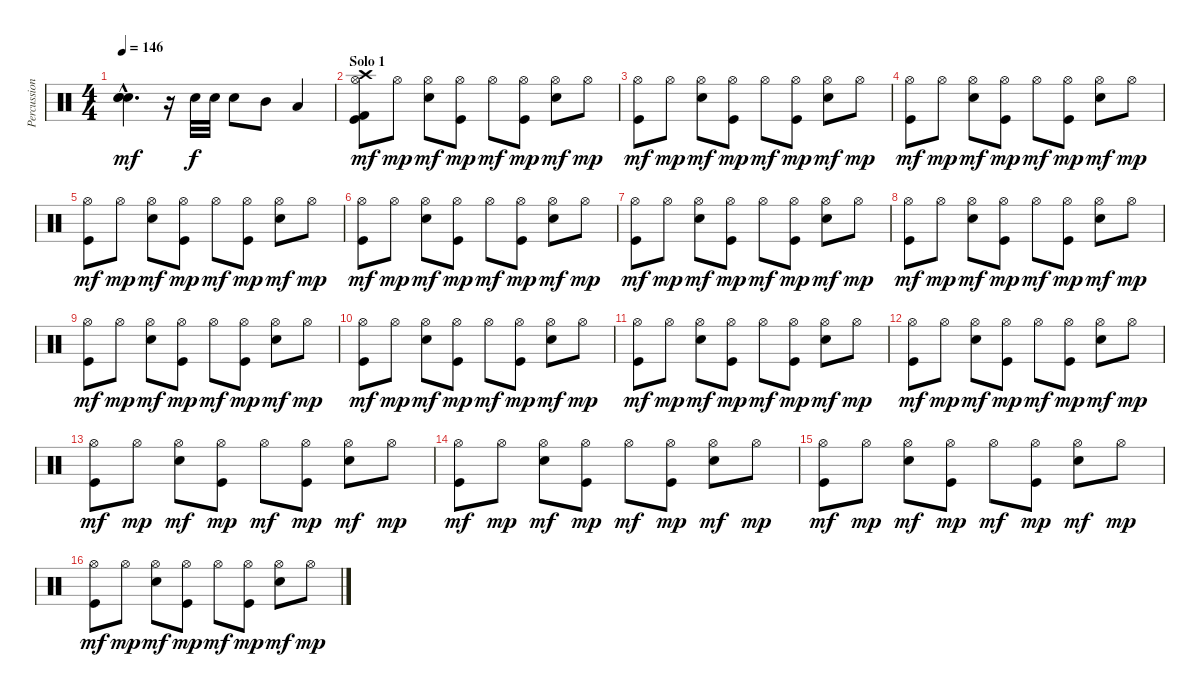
\track ("Percussion" "Percussion") {instrument percussion}
\staff {score}
\articulation defaults
\ts (4 4)
\tempo 146
\clef neutral
\ks c
("Snare (hit)"{hac t} "Snare (hit)"{hac t} "Snare (hit)"{hac t}).4{d dy mf} r.16 "Snare (hit) 2".32{dy f} "Snare (hit) 2".32 "Snare (hit) 2".8 "Mid Tom (hit)".8 "Low Tom (hit)".4 |
\section ("" "Solo 1")
("Hi-Hat (open)" "Crash high (hit)" "Kick (hit) 2" "Kick (hit)").8{dy mf} "Hi-Hat (open)".8{dy mp} ("Hi-Hat (open)" "Snare (hit) 2").8{dy mf} ("Hi-Hat (open)" "Kick (hit)").8{dy mp} "Hi-Hat (open)".8{dy mf} ("Hi-Hat (open)" "Kick (hit)").8{dy mp} ("Hi-Hat (open)" "Snare (hit) 2").8{dy mf} "Hi-Hat (open)".8{dy mp} |
("Hi-Hat (open)" "Kick (hit)").8{dy mf} "Hi-Hat (open)".8{dy mp} ("Hi-Hat (open)" "Snare (hit) 2").8{dy mf} ("Hi-Hat (open)" "Kick (hit)").8{dy mp} "Hi-Hat (open)".8{dy mf} ("Hi-Hat (open)" "Kick (hit)").8{dy mp} ("Hi-Hat (open)" "Snare (hit) 2").8{dy mf} "Hi-Hat (open)".8{dy mp} |
("Hi-Hat (open)" "Kick (hit)").8{dy mf} "Hi-Hat (open)".8{dy mp} ("Hi-Hat (open)" "Snare (hit) 2").8{dy mf} ("Hi-Hat (open)" "Kick (hit)").8{dy mp} "Hi-Hat (open)".8{dy mf} ("Hi-Hat (open)" "Kick (hit)").8{dy mp} ("Hi-Hat (open)" "Snare (hit) 2").8{dy mf} "Hi-Hat (open)".8{dy mp} |
("Hi-Hat (open)" "Kick (hit)").8{dy mf} "Hi-Hat (open)".8{dy mp} ("Hi-Hat (open)" "Snare (hit) 2").8{dy mf} ("Hi-Hat (open)" "Kick (hit)").8{dy mp} "Hi-Hat (open)".8{dy mf} ("Hi-Hat (open)" "Kick (hit)").8{dy mp} ("Hi-Hat (open)" "Snare (hit) 2").8{dy mf} "Hi-Hat (open)".8{dy mp} |
("Hi-Hat (open)" "Kick (hit)").8{dy mf} "Hi-Hat (open)".8{dy mp} ("Hi-Hat (open)" "Snare (hit) 2").8{dy mf} ("Hi-Hat (open)" "Kick (hit)").8{dy mp} "Hi-Hat (open)".8{dy mf} ("Hi-Hat (open)" "Kick (hit)").8{dy mp} ("Hi-Hat (open)" "Snare (hit) 2").8{dy mf} "Hi-Hat (open)".8{dy mp} |
("Hi-Hat (open)" "Kick (hit)").8{dy mf} "Hi-Hat (open)".8{dy mp} ("Hi-Hat (open)" "Snare (hit) 2").8{dy mf} ("Hi-Hat (open)" "Kick (hit)").8{dy mp} "Hi-Hat (open)".8{dy mf} ("Hi-Hat (open)" "Kick (hit)").8{dy mp} ("Hi-Hat (open)" "Snare (hit) 2").8{dy mf} "Hi-Hat (open)".8{dy mp} |
("Hi-Hat (open)" "Kick (hit)").8{dy mf} "Hi-Hat (open)".8{dy mp} ("Hi-Hat (open)" "Snare (hit) 2").8{dy mf} ("Hi-Hat (open)" "Kick (hit)").8{dy mp} "Hi-Hat (open)".8{dy mf} ("Hi-Hat (open)" "Kick (hit)").8{dy mp} ("Hi-Hat (open)" "Snare (hit) 2").8{dy mf} "Hi-Hat (open)".8{dy mp} |
("Hi-Hat (open)" "Kick (hit)").8{dy mf} "Hi-Hat (open)".8{dy mp} ("Hi-Hat (open)" "Snare (hit) 2").8{dy mf} ("Hi-Hat (open)" "Kick (hit)").8{dy mp} "Hi-Hat (open)".8{dy mf} ("Hi-Hat (open)" "Kick (hit)").8{dy mp} ("Hi-Hat (open)" "Snare (hit) 2").8{dy mf} "Hi-Hat (open)".8{dy mp} |
("Hi-Hat (open)" "Kick (hit)").8{dy mf} "Hi-Hat (open)".8{dy mp} ("Hi-Hat (open)" "Snare (hit) 2").8{dy mf} ("Hi-Hat (open)" "Kick (hit)").8{dy mp} "Hi-Hat (open)".8{dy mf} ("Hi-Hat (open)" "Kick (hit)").8{dy mp} ("Hi-Hat (open)" "Snare (hit) 2").8{dy mf} "Hi-Hat (open)".8{dy mp} |
("Hi-Hat (open)" "Kick (hit)").8{dy mf} "Hi-Hat (open)".8{dy mp} ("Hi-Hat (open)" "Snare (hit) 2").8{dy mf} ("Hi-Hat (open)" "Kick (hit)").8{dy mp} "Hi-Hat (open)".8{dy mf} ("Hi-Hat (open)" "Kick (hit)").8{dy mp} ("Hi-Hat (open)" "Snare (hit) 2").8{dy mf} "Hi-Hat (open)".8{dy mp} |
("Hi-Hat (open)" "Kick (hit)").8{dy mf} "Hi-Hat (open)".8{dy mp} ("Hi-Hat (open)" "Snare (hit) 2").8{dy mf} ("Hi-Hat (open)" "Kick (hit)").8{dy mp} "Hi-Hat (open)".8{dy mf} ("Hi-Hat (open)" "Kick (hit)").8{dy mp} ("Hi-Hat (open)" "Snare (hit) 2").8{dy mf} "Hi-Hat (open)".8{dy mp} |
("Hi-Hat (open)" "Kick (hit)").8{dy mf} "Hi-Hat (open)".8{dy mp} ("Hi-Hat (open)" "Snare (hit) 2").8{dy mf} ("Hi-Hat (open)" "Kick (hit)").8{dy mp} "Hi-Hat (open)".8{dy mf} ("Hi-Hat (open)" "Kick (hit)").8{dy mp} ("Hi-Hat (open)" "Snare (hit) 2").8{dy mf} "Hi-Hat (open)".8{dy mp} |
("Hi-Hat (open)" "Kick (hit)").8{dy mf} "Hi-Hat (open)".8{dy mp} ("Hi-Hat (open)" "Snare (hit) 2").8{dy mf} ("Hi-Hat (open)" "Kick (hit)").8{dy mp} "Hi-Hat (open)".8{dy mf} ("Hi-Hat (open)" "Kick (hit)").8{dy mp} ("Hi-Hat (open)" "Snare (hit) 2").8{dy mf} "Hi-Hat (open)".8{dy mp} |
("Hi-Hat (open)" "Kick (hit)").8{dy mf} "Hi-Hat (open)".8{dy mp} ("Hi-Hat (open)" "Snare (hit) 2").8{dy mf} ("Hi-Hat (open)" "Kick (hit)").8{dy mp} "Hi-Hat (open)".8{dy mf} ("Hi-Hat (open)" "Kick (hit)").8{dy mp} ("Hi-Hat (open)" "Snare (hit) 2").8{dy mf} "Hi-Hat (open)".8{dy mp} |
("Hi-Hat (open)" "Kick (hit)").8{dy mf} "Hi-Hat (open)".8{dy mp} ("Hi-Hat (open)" "Snare (hit) 2").8{dy mf} ("Hi-Hat (open)" "Kick (hit)").8{dy mp} "Hi-Hat (open)".8{dy mf} ("Hi-Hat (open)" "Kick (hit)").8{dy mp} ("Hi-Hat (open)" "Snare (hit) 2").8{dy mf} "Hi-Hat (open)".8{dy mp}
